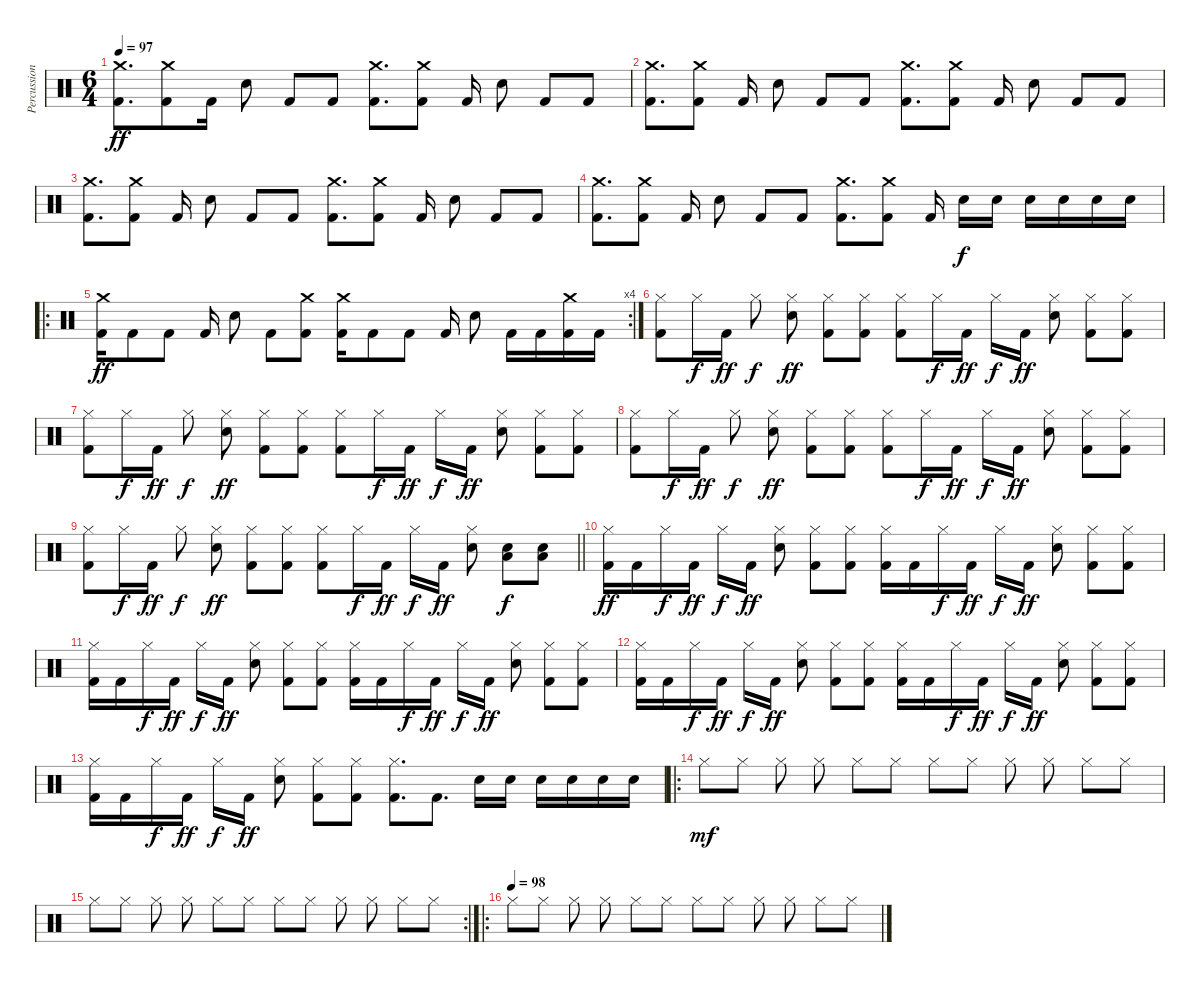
\track ("Percussion" "Percussion") {instrument percussion}
\staff {score}
\articulation defaults
\ts (6 4)
\tempo 97
\clef neutral
\ks c
("Crash medium (hit)" "Kick (hit) 2").8{d dy ff} ("Crash medium (hit)" "Kick (hit) 2").8{beam merge} "Kick (hit) 2".16{beam split} "Electric Snare (hit)".8 "Kick (hit) 2".8 "Kick (hit) 2".8 ("Crash medium (hit)" "Kick (hit) 2").8{d} ("Crash medium (hit)" "Kick (hit) 2").8 "Kick (hit) 2".16{beam split} "Electric Snare (hit)".8 "Kick (hit) 2".8 "Kick (hit) 2".8 |
("Crash medium (hit)" "Kick (hit) 2").8{d} ("Crash medium (hit)" "Kick (hit) 2").8 "Kick (hit) 2".16{beam split} "Electric Snare (hit)".8 "Kick (hit) 2".8 "Kick (hit) 2".8 ("Crash medium (hit)" "Kick (hit) 2").8{d} ("Crash medium (hit)" "Kick (hit) 2").8 "Kick (hit) 2".16{beam split} "Electric Snare (hit)".8 "Kick (hit) 2".8 "Kick (hit) 2".8 |
("Crash medium (hit)" "Kick (hit) 2").8{d} ("Crash medium (hit)" "Kick (hit) 2").8 "Kick (hit) 2".16{beam split} "Electric Snare (hit)".8 "Kick (hit) 2".8 "Kick (hit) 2".8 ("Crash medium (hit)" "Kick (hit) 2").8{d} ("Crash medium (hit)" "Kick (hit) 2").8 "Kick (hit) 2".16{beam split} "Electric Snare (hit)".8 "Kick (hit) 2".8 "Kick (hit) 2".8 |
("Crash medium (hit)" "Kick (hit) 2").8{d} ("Crash medium (hit)" "Kick (hit) 2").8 "Kick (hit) 2".16{beam split} "Electric Snare (hit)".8 "Kick (hit) 2".8 "Kick (hit) 2".8 ("Crash medium (hit)" "Kick (hit) 2").8{d} ("Crash medium (hit)" "Kick (hit) 2").8 "Kick (hit) 2".16{beam split} "Electric Snare (hit)".16{dy f} "Electric Snare (hit)".16 "Electric Snare (hit)".16 "Electric Snare (hit)".16 "Electric Snare (hit)".16 "Electric Snare (hit)".16 |
\ro
\rc 4
("Crash medium (hit)" "Kick (hit) 2").16{dy ff} "Kick (hit) 2".8 "Kick (hit) 2".8 "Kick (hit) 2".16{beam split} "Electric Snare (hit)".8 "Kick (hit) 2".8 ("Crash medium (hit)" "Kick (hit) 2").8 ("Crash medium (hit)" "Kick (hit) 2").16 "Kick (hit) 2".8 "Kick (hit) 2".8 "Kick (hit) 2".16{beam split} "Electric Snare (hit)".8 "Kick (hit) 2".16 "Kick (hit) 2".16 ("Crash medium (hit)" "Kick (hit) 2").16 "Kick (hit) 2".16 |
("Hi-Hat (closed)" "Kick (hit) 2").8 "Hi-Hat (closed)".16{dy f} "Kick (hit) 2".16{dy ff} "Hi-Hat (closed)".8{dy f beam split} ("Hi-Hat (closed)" "Electric Snare (hit)").8{dy ff} ("Hi-Hat (closed)" "Kick (hit) 2").8 ("Hi-Hat (closed)" "Kick (hit) 2").8 ("Hi-Hat (closed)" "Kick (hit) 2").8 "Hi-Hat (closed)".16{dy f} "Kick (hit) 2".16{dy ff} "Hi-Hat (closed)".16{dy f} "Kick (hit) 2".16{dy ff beam split} ("Hi-Hat (closed)" "Electric Snare (hit)").8 ("Hi-Hat (closed)" "Kick (hit) 2").8 ("Hi-Hat (closed)" "Kick (hit) 2").8 |
("Hi-Hat (closed)" "Kick (hit) 2").8 "Hi-Hat (closed)".16{dy f} "Kick (hit) 2".16{dy ff} "Hi-Hat (closed)".8{dy f beam split} ("Hi-Hat (closed)" "Electric Snare (hit)").8{dy ff} ("Hi-Hat (closed)" "Kick (hit) 2").8 ("Hi-Hat (closed)" "Kick (hit) 2").8 ("Hi-Hat (closed)" "Kick (hit) 2").8 "Hi-Hat (closed)".16{dy f} "Kick (hit) 2".16{dy ff} "Hi-Hat (closed)".16{dy f} "Kick (hit) 2".16{dy ff beam split} ("Hi-Hat (closed)" "Electric Snare (hit)").8 ("Hi-Hat (closed)" "Kick (hit) 2").8 ("Hi-Hat (closed)" "Kick (hit) 2").8 |
("Hi-Hat (closed)" "Kick (hit) 2").8 "Hi-Hat (closed)".16{dy f} "Kick (hit) 2".16{dy ff} "Hi-Hat (closed)".8{dy f beam split} ("Hi-Hat (closed)" "Electric Snare (hit)").8{dy ff} ("Hi-Hat (closed)" "Kick (hit) 2").8 ("Hi-Hat (closed)" "Kick (hit) 2").8 ("Hi-Hat (closed)" "Kick (hit) 2").8 "Hi-Hat (closed)".16{dy f} "Kick (hit) 2".16{dy ff} "Hi-Hat (closed)".16{dy f} "Kick (hit) 2".16{dy ff beam split} ("Hi-Hat (closed)" "Electric Snare (hit)").8 ("Hi-Hat (closed)" "Kick (hit) 2").8 ("Hi-Hat (closed)" "Kick (hit) 2").8 |
\barLineRight lightlight
("Hi-Hat (closed)" "Kick (hit) 2").8 "Hi-Hat (closed)".16{dy f} "Kick (hit) 2".16{dy ff} "Hi-Hat (closed)".8{dy f beam split} ("Hi-Hat (closed)" "Electric Snare (hit)").8{dy ff} ("Hi-Hat (closed)" "Kick (hit) 2").8 ("Hi-Hat (closed)" "Kick (hit) 2").8 ("Hi-Hat (closed)" "Kick (hit) 2").8 "Hi-Hat (closed)".16{dy f} "Kick (hit) 2".16{dy ff} "Hi-Hat (closed)".16{dy f} "Kick (hit) 2".16{dy ff beam split} ("Hi-Hat (closed)" "Electric Snare (hit)").8 ("Electric Snare (hit)" "Low Floor Tom (hit)").8{dy f} ("Electric Snare (hit)" "Low Floor Tom (hit)").8 |
("Hi-Hat (closed)" "Kick (hit) 2").16{dy ff} "Kick (hit) 2".16 "Hi-Hat (closed)".16{dy f} "Kick (hit) 2".16{dy ff} "Hi-Hat (closed)".16{dy f} "Kick (hit) 2".16{dy ff beam split} ("Hi-Hat (closed)" "Electric Snare (hit)").8 ("Hi-Hat (closed)" "Kick (hit) 2").8 ("Hi-Hat (closed)" "Kick (hit) 2").8 ("Hi-Hat (closed)" "Kick (hit) 2").16 "Kick (hit) 2".16 "Hi-Hat (closed)".16{dy f} "Kick (hit) 2".16{dy ff} "Hi-Hat (closed)".16{dy f} "Kick (hit) 2".16{dy ff beam split} ("Hi-Hat (closed)" "Electric Snare (hit)").8 ("Hi-Hat (closed)" "Kick (hit) 2").8 ("Hi-Hat (closed)" "Kick (hit) 2").8 |
("Hi-Hat (closed)" "Kick (hit) 2").16 "Kick (hit) 2".16 "Hi-Hat (closed)".16{dy f} "Kick (hit) 2".16{dy ff} "Hi-Hat (closed)".16{dy f} "Kick (hit) 2".16{dy ff beam split} ("Hi-Hat (closed)" "Electric Snare (hit)").8 ("Hi-Hat (closed)" "Kick (hit) 2").8 ("Hi-Hat (closed)" "Kick (hit) 2").8 ("Hi-Hat (closed)" "Kick (hit) 2").16 "Kick (hit) 2".16 "Hi-Hat (closed)".16{dy f} "Kick (hit) 2".16{dy ff} "Hi-Hat (closed)".16{dy f} "Kick (hit) 2".16{dy ff beam split} ("Hi-Hat (closed)" "Electric Snare (hit)").8 ("Hi-Hat (closed)" "Kick (hit) 2").8 ("Hi-Hat (closed)" "Kick (hit) 2").8 |
("Hi-Hat (closed)" "Kick (hit) 2").16 "Kick (hit) 2".16 "Hi-Hat (closed)".16{dy f} "Kick (hit) 2".16{dy ff} "Hi-Hat (closed)".16{dy f} "Kick (hit) 2".16{dy ff beam split} ("Hi-Hat (closed)" "Electric Snare (hit)").8 ("Hi-Hat (closed)" "Kick (hit) 2").8 ("Hi-Hat (closed)" "Kick (hit) 2").8 ("Hi-Hat (closed)" "Kick (hit) 2").16 "Kick (hit) 2".16 "Hi-Hat (closed)".16{dy f} "Kick (hit) 2".16{dy ff} "Hi-Hat (closed)".16{dy f} "Kick (hit) 2".16{dy ff beam split} ("Hi-Hat (closed)" "Electric Snare (hit)").8 ("Hi-Hat (closed)" "Kick (hit) 2").8 ("Hi-Hat (closed)" "Kick (hit) 2").8 |
("Hi-Hat (closed)" "Kick (hit) 2").16 "Kick (hit) 2".16 "Hi-Hat (closed)".16{dy f} "Kick (hit) 2".16{dy ff} "Hi-Hat (closed)".16{dy f} "Kick (hit) 2".16{dy ff beam split} ("Hi-Hat (closed)" "Electric Snare (hit)").8 ("Hi-Hat (closed)" "Kick (hit) 2").8 ("Hi-Hat (closed)" "Kick (hit) 2").8 ("Hi-Hat (closed)" "Kick (hit) 2").8{d} "Kick (hit) 2".8{d beam split} "Electric Snare (hit)".16 "Electric Snare (hit)".16 "Electric Snare (hit)".16 "Electric Snare (hit)".16 "Electric Snare (hit)".16 "Electric Snare (hit)".16 |
\ro "Hi-Hat (closed)".8{dy mf} "Hi-Hat (closed)".8 "Hi-Hat (closed)".8{beam split} "Hi-Hat (closed)".8 "Hi-Hat (closed)".8 "Hi-Hat (closed)".8 "Hi-Hat (closed)".8 "Hi-Hat (closed)".8 "Hi-Hat (closed)".8{beam split} "Hi-Hat (closed)".8 "Hi-Hat (closed)".8 "Hi-Hat (closed)".8
|
\rc 2 "Hi-Hat (closed)".8 "Hi-Hat (closed)".8 "Hi-Hat (closed)".8{beam split} "Hi-Hat (closed)".8 "Hi-Hat (closed)".8 "Hi-Hat (closed)".8 "Hi-Hat (closed)".8 "Hi-Hat (closed)".8 "Hi-Hat (closed)".8{beam split} "Hi-Hat (closed)".8 "Hi-Hat (closed)".8 "Hi-Hat (closed)".8
|
\ro
\tempo (98)
"Hi-Hat (closed)".8 "Hi-Hat (closed)".8 "Hi-Hat (closed)".8{beam split} "Hi-Hat (closed)".8 "Hi-Hat (closed)".8 "Hi-Hat (closed)".8 "Hi-Hat (closed)".8 "Hi-Hat (closed)".8 "Hi-Hat (closed)".8{beam split} "Hi-Hat (closed)".8 "Hi-Hat (closed)".8 "Hi-Hat (closed)".8
